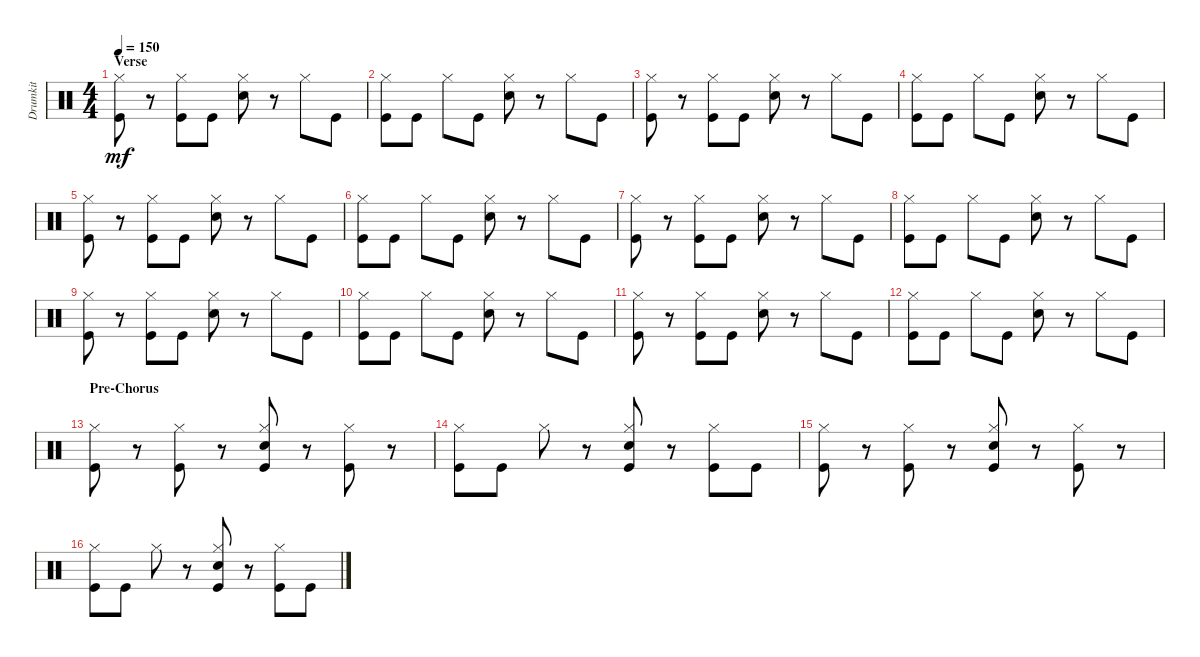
\track ("Drumkit" "Drumkit") {instrument percussion}
\staff {score}
\articulation defaults
\ts (4 4)
\section ("" "Verse")
\tempo 150
\clef neutral
\ks c
("Kick (hit)" "Hi-Hat (closed)").8{dy mf} r.8 ("Kick (hit)" "Hi-Hat (closed)").8 "Kick (hit)".8 ("Snare (hit) 2" "Hi-Hat (closed)").8 r.8 "Hi-Hat (closed)".8 "Kick (hit)".8 |
("Kick (hit)" "Hi-Hat (closed)").8 "Kick (hit)".8 "Hi-Hat (closed)".8 "Kick (hit)".8 ("Snare (hit) 2" "Hi-Hat (closed)").8 r.8 "Hi-Hat (closed)".8 "Kick (hit)".8 |
("Kick (hit)" "Hi-Hat (closed)").8 r.8 ("Kick (hit)" "Hi-Hat (closed)").8 "Kick (hit)".8 ("Snare (hit) 2" "Hi-Hat (closed)").8 r.8 "Hi-Hat (closed)".8 "Kick (hit)".8 |
("Kick (hit)" "Hi-Hat (closed)").8 "Kick (hit)".8 "Hi-Hat (closed)".8 "Kick (hit)".8 ("Snare (hit) 2" "Hi-Hat (closed)").8 r.8 "Hi-Hat (closed)".8 "Kick (hit)".8 |
("Kick (hit)" "Hi-Hat (closed)").8 r.8 ("Kick (hit)" "Hi-Hat (closed)").8 "Kick (hit)".8 ("Snare (hit) 2" "Hi-Hat (closed)").8 r.8 "Hi-Hat (closed)".8 "Kick (hit)".8 |
("Kick (hit)" "Hi-Hat (closed)").8 "Kick (hit)".8 "Hi-Hat (closed)".8 "Kick (hit)".8 ("Snare (hit) 2" "Hi-Hat (closed)").8 r.8 "Hi-Hat (closed)".8 "Kick (hit)".8 |
("Kick (hit)" "Hi-Hat (closed)").8 r.8 ("Kick (hit)" "Hi-Hat (closed)").8 "Kick (hit)".8 ("Snare (hit) 2" "Hi-Hat (closed)").8 r.8 "Hi-Hat (closed)".8 "Kick (hit)".8 |
("Kick (hit)" "Hi-Hat (closed)").8 "Kick (hit)".8 "Hi-Hat (closed)".8 "Kick (hit)".8 ("Snare (hit) 2" "Hi-Hat (closed)").8 r.8 "Hi-Hat (closed)".8 "Kick (hit)".8 |
("Kick (hit)" "Hi-Hat (closed)").8 r.8 ("Kick (hit)" "Hi-Hat (closed)").8 "Kick (hit)".8 ("Snare (hit) 2" "Hi-Hat (closed)").8 r.8 "Hi-Hat (closed)".8 "Kick (hit)".8 |
("Kick (hit)" "Hi-Hat (closed)").8 "Kick (hit)".8 "Hi-Hat (closed)".8 "Kick (hit)".8 ("Snare (hit) 2" "Hi-Hat (closed)").8 r.8 "Hi-Hat (closed)".8 "Kick (hit)".8 |
("Kick (hit)" "Hi-Hat (closed)").8 r.8 ("Kick (hit)" "Hi-Hat (closed)").8 "Kick (hit)".8 ("Snare (hit) 2" "Hi-Hat (closed)").8 r.8 "Hi-Hat (closed)".8 "Kick (hit)".8 |
("Kick (hit)" "Hi-Hat (closed)").8 "Kick (hit)".8 "Hi-Hat (closed)".8 "Kick (hit)".8 ("Snare (hit) 2" "Hi-Hat (closed)").8 r.8 "Hi-Hat (closed)".8 "Kick (hit)".8 |
\section ("" "Pre-Chorus")
("Kick (hit)" "Hi-Hat (closed)").8 r.8 ("Kick (hit)" "Hi-Hat (closed)").8 r.8 ("Snare (hit) 2" "Kick (hit)" "Hi-Hat (closed)").8 r.8 ("Kick (hit)" "Hi-Hat (closed)").8 r.8 |
("Kick (hit)" "Hi-Hat (closed)").8 "Kick (hit)".8 "Hi-Hat (closed)".8 r.8 ("Snare (hit) 2" "Kick (hit)" "Hi-Hat (closed)").8 r.8 ("Kick (hit)" "Hi-Hat (closed)").8 "Kick (hit)".8 |
("Kick (hit)" "Hi-Hat (closed)").8 r.8 ("Kick (hit)" "Hi-Hat (closed)").8 r.8 ("Snare (hit) 2" "Kick (hit)" "Hi-Hat (closed)").8 r.8 ("Kick (hit)" "Hi-Hat (closed)").8 r.8 |
("Kick (hit)" "Hi-Hat (closed)").8 "Kick (hit)".8 "Hi-Hat (closed)".8 r.8 ("Snare (hit) 2" "Kick (hit)" "Hi-Hat (closed)").8 r.8 ("Kick (hit)" "Hi-Hat (closed)").8 "Kick (hit)".8
